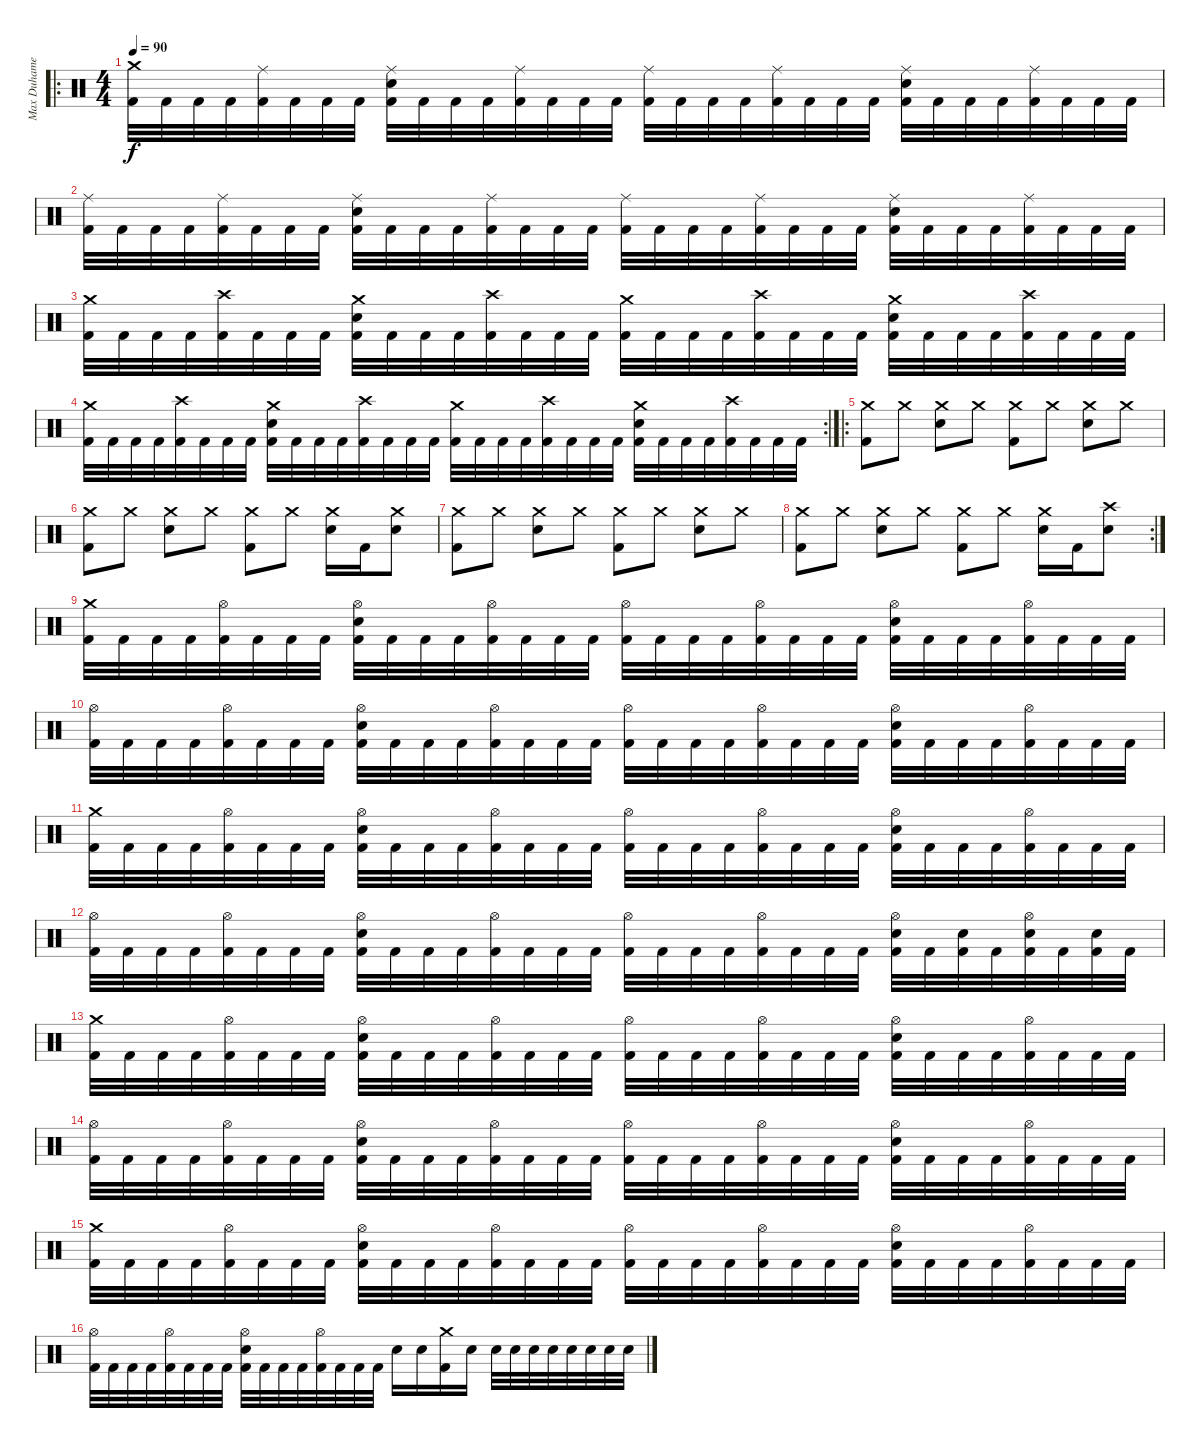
\track ("Max Duhamel (Drums)" "Max Duhame") {instrument percussion}
\staff {score}
\articulation defaults
\ro
\ts (4 4)
\tempo 90
\clef neutral
\ks c
("Crash medium (hit)" "Kick (hit) 2").32{dy f} "Kick (hit) 2".32 "Kick (hit) 2".32 "Kick (hit) 2".32 ("Ride (middle)" "Kick (hit) 2").32 "Kick (hit) 2".32 "Kick (hit) 2".32 "Kick (hit) 2".32 ("Ride (middle)" "Snare (hit) 2" "Kick (hit) 2").32 "Kick (hit) 2".32 "Kick (hit) 2".32 "Kick (hit) 2".32 ("Ride (middle)" "Kick (hit) 2").32 "Kick (hit) 2".32 "Kick (hit) 2".32 "Kick (hit) 2".32 ("Ride (middle)" "Kick (hit) 2").32 "Kick (hit) 2".32 "Kick (hit) 2".32 "Kick (hit) 2".32 ("Ride (middle)" "Kick (hit) 2").32 "Kick (hit) 2".32 "Kick (hit) 2".32 "Kick (hit) 2".32 ("Ride (middle)" "Snare (hit) 2" "Kick (hit) 2").32 "Kick (hit) 2".32 "Kick (hit) 2".32 "Kick (hit) 2".32 ("Ride (middle)" "Kick (hit) 2").32 "Kick (hit) 2".32 "Kick (hit) 2".32 "Kick (hit) 2".32 |
("Ride (middle)" "Kick (hit) 2").32 "Kick (hit) 2".32 "Kick (hit) 2".32 "Kick (hit) 2".32 ("Ride (middle)" "Kick (hit) 2").32 "Kick (hit) 2".32 "Kick (hit) 2".32 "Kick (hit) 2".32 ("Ride (middle)" "Snare (hit) 2" "Kick (hit) 2").32 "Kick (hit) 2".32 "Kick (hit) 2".32 "Kick (hit) 2".32 ("Ride (middle)" "Kick (hit) 2").32 "Kick (hit) 2".32 "Kick (hit) 2".32 "Kick (hit) 2".32 ("Ride (middle)" "Kick (hit) 2").32 "Kick (hit) 2".32 "Kick (hit) 2".32 "Kick (hit) 2".32 ("Ride (middle)" "Kick (hit) 2").32 "Kick (hit) 2".32 "Kick (hit) 2".32 "Kick (hit) 2".32 ("Ride (middle)" "Snare (hit) 2" "Kick (hit) 2").32 "Kick (hit) 2".32 "Kick (hit) 2".32 "Kick (hit) 2".32 ("Ride (middle)" "Kick (hit) 2").32 "Kick (hit) 2".32 "Kick (hit) 2".32 "Kick (hit) 2".32 |
("Crash medium (hit)" "Kick (hit) 2").32 "Kick (hit) 2".32 "Kick (hit) 2".32 "Kick (hit) 2".32 ("Crash high (hit)" "Kick (hit) 2").32 "Kick (hit) 2".32 "Kick (hit) 2".32 "Kick (hit) 2".32 ("Crash medium (hit)" "Snare (hit) 2" "Kick (hit) 2").32 "Kick (hit) 2".32 "Kick (hit) 2".32 "Kick (hit) 2".32 ("Crash high (hit)" "Kick (hit) 2").32 "Kick (hit) 2".32 "Kick (hit) 2".32 "Kick (hit) 2".32 ("Crash medium (hit)" "Kick (hit) 2").32 "Kick (hit) 2".32 "Kick (hit) 2".32 "Kick (hit) 2".32 ("Crash high (hit)" "Kick (hit) 2").32 "Kick (hit) 2".32 "Kick (hit) 2".32 "Kick (hit) 2".32 ("Crash medium (hit)" "Snare (hit) 2" "Kick (hit) 2").32 "Kick (hit) 2".32 "Kick (hit) 2".32 "Kick (hit) 2".32 ("Crash high (hit)" "Kick (hit) 2").32 "Kick (hit) 2".32 "Kick (hit) 2".32 "Kick (hit) 2".32 |
\rc 2
("Crash medium (hit)" "Kick (hit) 2").32 "Kick (hit) 2".32 "Kick (hit) 2".32 "Kick (hit) 2".32 ("Crash high (hit)" "Kick (hit) 2").32 "Kick (hit) 2".32 "Kick (hit) 2".32 "Kick (hit) 2".32 ("Crash medium (hit)" "Snare (hit) 2" "Kick (hit) 2").32 "Kick (hit) 2".32 "Kick (hit) 2".32 "Kick (hit) 2".32 ("Crash high (hit)" "Kick (hit) 2").32 "Kick (hit) 2".32 "Kick (hit) 2".32 "Kick (hit) 2".32 ("Crash medium (hit)" "Kick (hit) 2").32 "Kick (hit) 2".32 "Kick (hit) 2".32 "Kick (hit) 2".32 ("Crash high (hit)" "Kick (hit) 2").32 "Kick (hit) 2".32 "Kick (hit) 2".32 "Kick (hit) 2".32 ("Crash medium (hit)" "Snare (hit) 2" "Kick (hit) 2").32 "Kick (hit) 2".32 "Kick (hit) 2".32 "Kick (hit) 2".32 ("Crash high (hit)" "Kick (hit) 2").32 "Kick (hit) 2".32 "Kick (hit) 2".32 "Kick (hit) 2".32 |
\ro
("Crash medium (hit)" "Kick (hit) 2").8 "Crash medium (hit)".8 ("Crash medium (hit)" "Snare (hit) 2").8 "Crash medium (hit)".8 ("Crash medium (hit)" "Kick (hit) 2").8 "Crash medium (hit)".8 ("Crash medium (hit)" "Snare (hit) 2").8 "Crash medium (hit)".8 |
("Crash medium (hit)" "Kick (hit) 2").8 "Crash medium (hit)".8 ("Crash medium (hit)" "Snare (hit) 2").8 "Crash medium (hit)".8 ("Crash medium (hit)" "Kick (hit) 2").8 "Crash medium (hit)".8 ("Crash medium (hit)" "Snare (hit) 2").16 "Kick (hit) 2".16 ("Crash medium (hit)" "Snare (hit) 2").8 |
("Crash medium (hit)" "Kick (hit) 2").8 "Crash medium (hit)".8 ("Crash medium (hit)" "Snare (hit) 2").8 "Crash medium (hit)".8 ("Crash medium (hit)" "Kick (hit) 2").8 "Crash medium (hit)".8 ("Crash medium (hit)" "Snare (hit) 2").8 "Crash medium (hit)".8 |
\rc 2
("Crash medium (hit)" "Kick (hit) 2").8 "Crash medium (hit)".8 ("Crash medium (hit)" "Snare (hit) 2").8 "Crash medium (hit)".8 ("Crash medium (hit)" "Kick (hit) 2").8 "Crash medium (hit)".8 ("Crash medium (hit)" "Snare (hit) 2").16 "Kick (hit) 2".16 ("Crash high (hit)" "Snare (hit) 2").8 |
("Crash medium (hit)" "Kick (hit) 2").32 "Kick (hit) 2".32 "Kick (hit) 2".32 "Kick (hit) 2".32 ("Hi-Hat (open)" "Kick (hit) 2").32 "Kick (hit) 2".32 "Kick (hit) 2".32 "Kick (hit) 2".32 ("Hi-Hat (open)" "Snare (hit) 2" "Kick (hit) 2").32 "Kick (hit) 2".32 "Kick (hit) 2".32 "Kick (hit) 2".32 ("Hi-Hat (open)" "Kick (hit) 2").32 "Kick (hit) 2".32 "Kick (hit) 2".32 "Kick (hit) 2".32 ("Hi-Hat (open)" "Kick (hit) 2").32 "Kick (hit) 2".32 "Kick (hit) 2".32 "Kick (hit) 2".32 ("Hi-Hat (open)" "Kick (hit) 2").32 "Kick (hit) 2".32 "Kick (hit) 2".32 "Kick (hit) 2".32 ("Hi-Hat (open)" "Snare (hit) 2" "Kick (hit) 2").32 "Kick (hit) 2".32 "Kick (hit) 2".32 "Kick (hit) 2".32 ("Hi-Hat (open)" "Kick (hit) 2").32 "Kick (hit) 2".32 "Kick (hit) 2".32 "Kick (hit) 2".32 |
("Hi-Hat (open)" "Kick (hit) 2").32 "Kick (hit) 2".32 "Kick (hit) 2".32 "Kick (hit) 2".32 ("Hi-Hat (open)" "Kick (hit) 2").32 "Kick (hit) 2".32 "Kick (hit) 2".32 "Kick (hit) 2".32 ("Hi-Hat (open)" "Snare (hit) 2" "Kick (hit) 2").32 "Kick (hit) 2".32 "Kick (hit) 2".32 "Kick (hit) 2".32 ("Hi-Hat (open)" "Kick (hit) 2").32 "Kick (hit) 2".32 "Kick (hit) 2".32 "Kick (hit) 2".32 ("Hi-Hat (open)" "Kick (hit) 2").32 "Kick (hit) 2".32 "Kick (hit) 2".32 "Kick (hit) 2".32 ("Hi-Hat (open)" "Kick (hit) 2").32 "Kick (hit) 2".32 "Kick (hit) 2".32 "Kick (hit) 2".32 ("Hi-Hat (open)" "Snare (hit) 2" "Kick (hit) 2").32 "Kick (hit) 2".32 "Kick (hit) 2".32 "Kick (hit) 2".32 ("Hi-Hat (open)" "Kick (hit) 2").32 "Kick (hit) 2".32 "Kick (hit) 2".32 "Kick (hit) 2".32 |
("Crash medium (hit)" "Kick (hit) 2").32 "Kick (hit) 2".32 "Kick (hit) 2".32 "Kick (hit) 2".32 ("Hi-Hat (open)" "Kick (hit) 2").32 "Kick (hit) 2".32 "Kick (hit) 2".32 "Kick (hit) 2".32 ("Hi-Hat (open)" "Snare (hit) 2" "Kick (hit) 2").32 "Kick (hit) 2".32 "Kick (hit) 2".32 "Kick (hit) 2".32 ("Hi-Hat (open)" "Kick (hit) 2").32 "Kick (hit) 2".32 "Kick (hit) 2".32 "Kick (hit) 2".32 ("Hi-Hat (open)" "Kick (hit) 2").32 "Kick (hit) 2".32 "Kick (hit) 2".32 "Kick (hit) 2".32 ("Hi-Hat (open)" "Kick (hit) 2").32 "Kick (hit) 2".32 "Kick (hit) 2".32 "Kick (hit) 2".32 ("Hi-Hat (open)" "Snare (hit) 2" "Kick (hit) 2").32 "Kick (hit) 2".32 "Kick (hit) 2".32 "Kick (hit) 2".32 ("Hi-Hat (open)" "Kick (hit) 2").32 "Kick (hit) 2".32 "Kick (hit) 2".32 "Kick (hit) 2".32 |
("Hi-Hat (open)" "Kick (hit) 2").32 "Kick (hit) 2".32 "Kick (hit) 2".32 "Kick (hit) 2".32 ("Hi-Hat (open)" "Kick (hit) 2").32 "Kick (hit) 2".32 "Kick (hit) 2".32 "Kick (hit) 2".32 ("Hi-Hat (open)" "Snare (hit) 2" "Kick (hit) 2").32 "Kick (hit) 2".32 "Kick (hit) 2".32 "Kick (hit) 2".32 ("Hi-Hat (open)" "Kick (hit) 2").32 "Kick (hit) 2".32 "Kick (hit) 2".32 "Kick (hit) 2".32 ("Hi-Hat (open)" "Kick (hit) 2").32 "Kick (hit) 2".32 "Kick (hit) 2".32 "Kick (hit) 2".32 ("Hi-Hat (open)" "Kick (hit) 2").32 "Kick (hit) 2".32 "Kick (hit) 2".32 "Kick (hit) 2".32 ("Hi-Hat (open)" "Snare (hit) 2" "Kick (hit) 2").32 "Kick (hit) 2".32 ("Snare (hit) 2" "Kick (hit) 2").32 "Kick (hit) 2".32 ("Hi-Hat (open)" "Snare (hit) 2" "Kick (hit) 2").32 "Kick (hit) 2".32 ("Snare (hit) 2" "Kick (hit) 2").32 "Kick (hit) 2".32 |
("Crash medium (hit)" "Kick (hit) 2").32 "Kick (hit) 2".32 "Kick (hit) 2".32 "Kick (hit) 2".32 ("Hi-Hat (open)" "Kick (hit) 2").32 "Kick (hit) 2".32 "Kick (hit) 2".32 "Kick (hit) 2".32 ("Hi-Hat (open)" "Snare (hit) 2" "Kick (hit) 2").32 "Kick (hit) 2".32 "Kick (hit) 2".32 "Kick (hit) 2".32 ("Hi-Hat (open)" "Kick (hit) 2").32 "Kick (hit) 2".32 "Kick (hit) 2".32 "Kick (hit) 2".32 ("Hi-Hat (open)" "Kick (hit) 2").32 "Kick (hit) 2".32 "Kick (hit) 2".32 "Kick (hit) 2".32 ("Hi-Hat (open)" "Kick (hit) 2").32 "Kick (hit) 2".32 "Kick (hit) 2".32 "Kick (hit) 2".32 ("Hi-Hat (open)" "Snare (hit) 2" "Kick (hit) 2").32 "Kick (hit) 2".32 "Kick (hit) 2".32 "Kick (hit) 2".32 ("Hi-Hat (open)" "Kick (hit) 2").32 "Kick (hit) 2".32 "Kick (hit) 2".32 "Kick (hit) 2".32 |
("Hi-Hat (open)" "Kick (hit) 2").32 "Kick (hit) 2".32 "Kick (hit) 2".32 "Kick (hit) 2".32 ("Hi-Hat (open)" "Kick (hit) 2").32 "Kick (hit) 2".32 "Kick (hit) 2".32 "Kick (hit) 2".32 ("Hi-Hat (open)" "Snare (hit) 2" "Kick (hit) 2").32 "Kick (hit) 2".32 "Kick (hit) 2".32 "Kick (hit) 2".32 ("Hi-Hat (open)" "Kick (hit) 2").32 "Kick (hit) 2".32 "Kick (hit) 2".32 "Kick (hit) 2".32 ("Hi-Hat (open)" "Kick (hit) 2").32 "Kick (hit) 2".32 "Kick (hit) 2".32 "Kick (hit) 2".32 ("Hi-Hat (open)" "Kick (hit) 2").32 "Kick (hit) 2".32 "Kick (hit) 2".32 "Kick (hit) 2".32 ("Hi-Hat (open)" "Snare (hit) 2" "Kick (hit) 2").32 "Kick (hit) 2".32 "Kick (hit) 2".32 "Kick (hit) 2".32 ("Hi-Hat (open)" "Kick (hit) 2").32 "Kick (hit) 2".32 "Kick (hit) 2".32 "Kick (hit) 2".32 |
("Crash medium (hit)" "Kick (hit) 2").32 "Kick (hit) 2".32 "Kick (hit) 2".32 "Kick (hit) 2".32 ("Hi-Hat (open)" "Kick (hit) 2").32 "Kick (hit) 2".32 "Kick (hit) 2".32 "Kick (hit) 2".32 ("Hi-Hat (open)" "Snare (hit) 2" "Kick (hit) 2").32 "Kick (hit) 2".32 "Kick (hit) 2".32 "Kick (hit) 2".32 ("Hi-Hat (open)" "Kick (hit) 2").32 "Kick (hit) 2".32 "Kick (hit) 2".32 "Kick (hit) 2".32 ("Hi-Hat (open)" "Kick (hit) 2").32 "Kick (hit) 2".32 "Kick (hit) 2".32 "Kick (hit) 2".32 ("Hi-Hat (open)" "Kick (hit) 2").32 "Kick (hit) 2".32 "Kick (hit) 2".32 "Kick (hit) 2".32 ("Hi-Hat (open)" "Snare (hit) 2" "Kick (hit) 2").32 "Kick (hit) 2".32 "Kick (hit) 2".32 "Kick (hit) 2".32 ("Hi-Hat (open)" "Kick (hit) 2").32 "Kick (hit) 2".32 "Kick (hit) 2".32 "Kick (hit) 2".32 |
("Hi-Hat (open)" "Kick (hit) 2").32 "Kick (hit) 2".32 "Kick (hit) 2".32 "Kick (hit) 2".32 ("Hi-Hat (open)" "Kick (hit) 2").32 "Kick (hit) 2".32 "Kick (hit) 2".32 "Kick (hit) 2".32 ("Hi-Hat (open)" "Snare (hit) 2" "Kick (hit) 2").32 "Kick (hit) 2".32 "Kick (hit) 2".32 "Kick (hit) 2".32 ("Hi-Hat (open)" "Kick (hit) 2").32 "Kick (hit) 2".32 "Kick (hit) 2".32 "Kick (hit) 2".32 "Snare (hit) 2".16 "Snare (hit) 2".16 ("Crash medium (hit)" "Kick (hit) 2").16 "Snare (hit) 2".16 "Snare (hit) 2".32 "Snare (hit) 2".32 "Snare (hit) 2".32 "Snare (hit) 2".32 "Snare (hit) 2".32 "Snare (hit) 2".32 "Snare (hit) 2".32 "Snare (hit) 2".32
